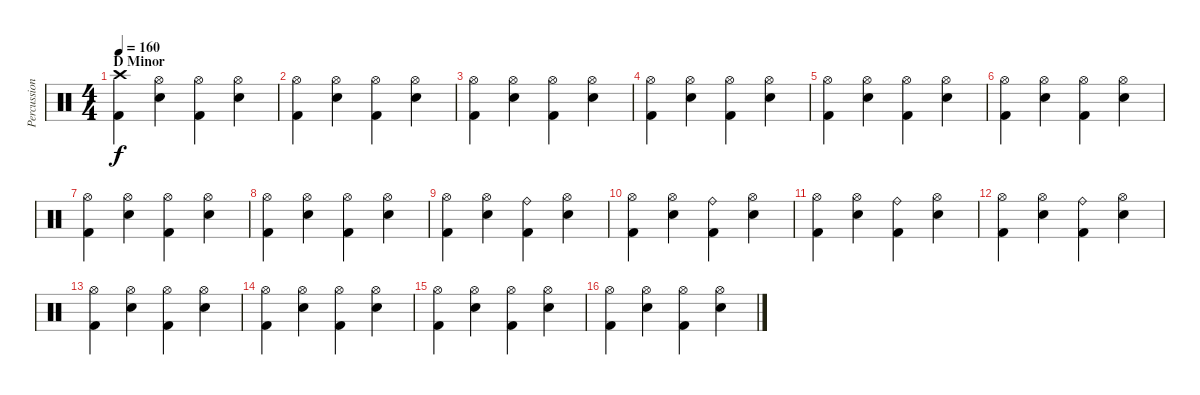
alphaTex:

\track ("Percussion" "Percussion") {instrument percussion}
\staff {score}
\articulation defaults
\ts (4 4)
\section ("" "D Minor")
\tempo 160
\clef neutral
\ks c
("Crash high (hit)" "Kick (hit) 2").4{dy f} ("Hi-Hat (open)" "Electric Snare (hit)").4 ("Hi-Hat (open)" "Kick (hit) 2").4 ("Hi-Hat (open)" "Electric Snare (hit)").4 |
("Hi-Hat (open)" "Kick (hit) 2").4 ("Hi-Hat (open)" "Electric Snare (hit)").4 ("Hi-Hat (open)" "Kick (hit) 2").4 ("Hi-Hat (open)" "Electric Snare (hit)").4 |
("Hi-Hat (open)" "Kick (hit) 2").4 ("Hi-Hat (open)" "Electric Snare (hit)").4 ("Hi-Hat (open)" "Kick (hit) 2").4 ("Hi-Hat (open)" "Electric Snare (hit)").4 |
("Hi-Hat (open)" "Kick (hit) 2").4 ("Hi-Hat (open)" "Electric Snare (hit)").4 ("Hi-Hat (open)" "Kick (hit) 2").4 ("Hi-Hat (open)" "Electric Snare (hit)").4 |
("Hi-Hat (open)" "Kick (hit) 2").4 ("Hi-Hat (open)" "Electric Snare (hit)").4 ("Hi-Hat (open)" "Kick (hit) 2").4 ("Hi-Hat (open)" "Electric Snare (hit)").4 |
("Hi-Hat (open)" "Kick (hit) 2").4 ("Hi-Hat (open)" "Electric Snare (hit)").4 ("Hi-Hat (open)" "Kick (hit) 2").4 ("Hi-Hat (open)" "Electric Snare (hit)").4 |
("Hi-Hat (open)" "Kick (hit) 2").4 ("Hi-Hat (open)" "Electric Snare (hit)").4 ("Hi-Hat (open)" "Kick (hit) 2").4 ("Hi-Hat (open)" "Electric Snare (hit)").4 |
("Hi-Hat (open)" "Kick (hit) 2").4 ("Hi-Hat (open)" "Electric Snare (hit)").4 ("Hi-Hat (open)" "Kick (hit) 2").4 ("Hi-Hat (open)" "Electric Snare (hit)").4 |
("Hi-Hat (open)" "Kick (hit) 2").4 ("Hi-Hat (open)" "Electric Snare (hit)").4 ("Ride (bell)" "Kick (hit) 2").4 ("Hi-Hat (open)" "Electric Snare (hit)").4 |
("Hi-Hat (open)" "Kick (hit) 2").4 ("Hi-Hat (open)" "Electric Snare (hit)").4 ("Ride (bell)" "Kick (hit) 2").4 ("Hi-Hat (open)" "Electric Snare (hit)").4 |
("Hi-Hat (open)" "Kick (hit) 2").4 ("Hi-Hat (open)" "Electric Snare (hit)").4 ("Ride (bell)" "Kick (hit) 2").4 ("Hi-Hat (open)" "Electric Snare (hit)").4 |
("Hi-Hat (open)" "Kick (hit) 2").4 ("Hi-Hat (open)" "Electric Snare (hit)").4 ("Ride (bell)" "Kick (hit) 2").4 ("Hi-Hat (open)" "Electric Snare (hit)").4 |
("Hi-Hat (open)" "Kick (hit) 2").4 ("Hi-Hat (open)" "Electric Snare (hit)").4 ("Hi-Hat (open)" "Kick (hit) 2").4 ("Hi-Hat (open)" "Electric Snare (hit)").4 |
("Hi-Hat (open)" "Kick (hit) 2").4 ("Hi-Hat (open)" "Electric Snare (hit)").4 ("Hi-Hat (open)" "Kick (hit) 2").4 ("Hi-Hat (open)" "Electric Snare (hit)").4 |
("Hi-Hat (open)" "Kick (hit) 2").4 ("Hi-Hat (open)" "Electric Snare (hit)").4 ("Hi-Hat (open)" "Kick (hit) 2").4 ("Hi-Hat (open)" "Electric Snare (hit)").4 |
("Hi-Hat (open)" "Kick (hit) 2").4 ("Hi-Hat (open)" "Electric Snare (hit)").4 ("Hi-Hat (open)" "Kick (hit) 2").4 ("Hi-Hat (open)" "Electric Snare (hit)").4
